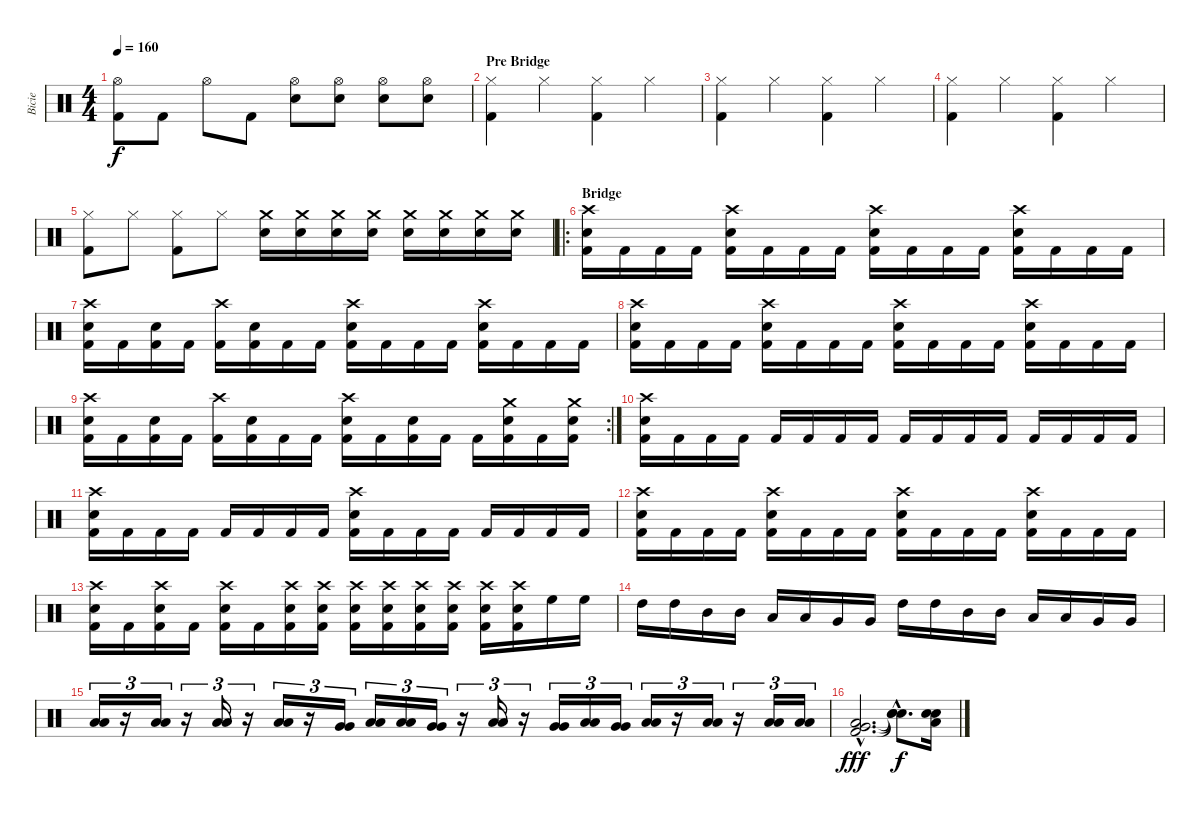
\track ("Bicie" "Bicie") {instrument percussion}
\staff {score}
\articulation defaults
\ts (4 4)
\tempo 160
\clef neutral
\ks c
("Hi-Hat (open)" "Kick (hit) 2").8{dy f} "Kick (hit) 2".8 "Hi-Hat (open)".8 "Kick (hit) 2".8 ("Hi-Hat (open)" "Electric Snare (hit)").8 ("Hi-Hat (open)" "Electric Snare (hit)").8 ("Hi-Hat (open)" "Electric Snare (hit)").8 ("Hi-Hat (open)" "Electric Snare (hit)").8 |
\section ("" "Pre Bridge")
("Kick (hit) 2" "Hi-Hat (closed)").4 "Hi-Hat (closed)".4 ("Kick (hit) 2" "Hi-Hat (closed)").4 "Hi-Hat (closed)".4 |
("Kick (hit) 2" "Hi-Hat (closed)").4 "Hi-Hat (closed)".4 ("Kick (hit) 2" "Hi-Hat (closed)").4 "Hi-Hat (closed)".4 |
("Kick (hit) 2" "Hi-Hat (closed)").4 "Hi-Hat (closed)".4 ("Kick (hit) 2" "Hi-Hat (closed)").4 "Hi-Hat (closed)".4 |
("Kick (hit) 2" "Hi-Hat (closed)").8 "Hi-Hat (closed)".8 ("Kick (hit) 2" "Hi-Hat (closed)").8 "Hi-Hat (closed)".8 ("Electric Snare (hit)" "Crash medium (hit)").16 ("Electric Snare (hit)" "Crash medium (hit)").16 ("Electric Snare (hit)" "Crash medium (hit)").16 ("Electric Snare (hit)" "Crash medium (hit)").16 ("Electric Snare (hit)" "Crash medium (hit)").16 ("Electric Snare (hit)" "Crash medium (hit)").16 ("Electric Snare (hit)" "Crash medium (hit)").16 ("Electric Snare (hit)" "Crash medium (hit)").16 |
\ro
\section ("" "Bridge")
("Crash high (hit)" "Electric Snare (hit)" "Kick (hit) 2").16 "Kick (hit) 2".16 "Kick (hit) 2".16 "Kick (hit) 2".16 ("Crash high (hit)" "Electric Snare (hit)" "Kick (hit) 2").16 "Kick (hit) 2".16 "Kick (hit) 2".16 "Kick (hit) 2".16 ("Crash high (hit)" "Electric Snare (hit)" "Kick (hit) 2").16 "Kick (hit) 2".16 "Kick (hit) 2".16 "Kick (hit) 2".16 ("Crash high (hit)" "Electric Snare (hit)" "Kick (hit) 2").16 "Kick (hit) 2".16 "Kick (hit) 2".16 "Kick (hit) 2".16 |
("Crash high (hit)" "Electric Snare (hit)" "Kick (hit) 2").16 "Kick (hit) 2".16 ("Electric Snare (hit)" "Kick (hit) 2").16 "Kick (hit) 2".16 ("Crash high (hit)" "Kick (hit) 2").16 ("Electric Snare (hit)" "Kick (hit) 2").16 "Kick (hit) 2".16 "Kick (hit) 2".16 ("Crash high (hit)" "Electric Snare (hit)" "Kick (hit) 2").16 "Kick (hit) 2".16 "Kick (hit) 2".16 "Kick (hit) 2".16 ("Crash high (hit)" "Electric Snare (hit)" "Kick (hit) 2").16 "Kick (hit) 2".16 "Kick (hit) 2".16 "Kick (hit) 2".16 |
("Crash high (hit)" "Electric Snare (hit)" "Kick (hit) 2").16 "Kick (hit) 2".16 "Kick (hit) 2".16 "Kick (hit) 2".16 ("Crash high (hit)" "Electric Snare (hit)" "Kick (hit) 2").16 "Kick (hit) 2".16 "Kick (hit) 2".16 "Kick (hit) 2".16 ("Crash high (hit)" "Electric Snare (hit)" "Kick (hit) 2").16 "Kick (hit) 2".16 "Kick (hit) 2".16 "Kick (hit) 2".16 ("Crash high (hit)" "Electric Snare (hit)" "Kick (hit) 2").16 "Kick (hit) 2".16 "Kick (hit) 2".16 "Kick (hit) 2".16 |
\rc 2
("Crash high (hit)" "Electric Snare (hit)" "Kick (hit) 2").16 "Kick (hit) 2".16 ("Electric Snare (hit)" "Kick (hit) 2").16 "Kick (hit) 2".16 ("Crash high (hit)" "Kick (hit) 2").16 ("Electric Snare (hit)" "Kick (hit) 2").16 "Kick (hit) 2".16 "Kick (hit) 2".16 ("Crash high (hit)" "Electric Snare (hit)" "Kick (hit) 2").16 "Kick (hit) 2".16 ("Electric Snare (hit)" "Kick (hit) 2").16 "Kick (hit) 2".16 "Kick (hit) 2".16 ("Crash medium (hit)" "Electric Snare (hit)" "Kick (hit) 2").16 "Kick (hit) 2".16 ("Crash medium (hit)" "Electric Snare (hit)" "Kick (hit) 2").16 |
("Crash high (hit)" "Electric Snare (hit)" "Kick (hit) 2").16{volume 16} "Kick (hit) 2".16 "Kick (hit) 2".16 "Kick (hit) 2".16 "Kick (hit) 2".16 "Kick (hit) 2".16 "Kick (hit) 2".16 "Kick (hit) 2".16 "Kick (hit) 2".16 "Kick (hit) 2".16 "Kick (hit) 2".16 "Kick (hit) 2".16 "Kick (hit) 2".16 "Kick (hit) 2".16 "Kick (hit) 2".16 "Kick (hit) 2".16 |
("Crash high (hit)" "Electric Snare (hit)" "Kick (hit) 2").16 "Kick (hit) 2".16 "Kick (hit) 2".16 "Kick (hit) 2".16 "Kick (hit) 2".16 "Kick (hit) 2".16 "Kick (hit) 2".16 "Kick (hit) 2".16 ("Crash high (hit)" "Electric Snare (hit)" "Kick (hit) 2").16 "Kick (hit) 2".16 "Kick (hit) 2".16 "Kick (hit) 2".16 "Kick (hit) 2".16 "Kick (hit) 2".16 "Kick (hit) 2".16 "Kick (hit) 2".16 |
("Crash high (hit)" "Electric Snare (hit)" "Kick (hit) 2").16 "Kick (hit) 2".16 "Kick (hit) 2".16 "Kick (hit) 2".16 ("Crash high (hit)" "Electric Snare (hit)" "Kick (hit) 2").16 "Kick (hit) 2".16 "Kick (hit) 2".16 "Kick (hit) 2".16 ("Crash high (hit)" "Electric Snare (hit)" "Kick (hit) 2").16 "Kick (hit) 2".16 "Kick (hit) 2".16 "Kick (hit) 2".16 ("Crash high (hit)" "Electric Snare (hit)" "Kick (hit) 2").16 "Kick (hit) 2".16 "Kick (hit) 2".16 "Kick (hit) 2".16 |
("Crash high (hit)" "Electric Snare (hit)" "Kick (hit) 2").16 "Kick (hit) 2".16 ("Crash high (hit)" "Electric Snare (hit)" "Kick (hit) 2").16 "Kick (hit) 2".16 ("Crash high (hit)" "Electric Snare (hit)" "Kick (hit) 2").16 "Kick (hit) 2".16 ("Crash high (hit)" "Electric Snare (hit)" "Kick (hit) 2").16 ("Crash high (hit)" "Electric Snare (hit)" "Kick (hit) 2").16 ("Crash high (hit)" "Electric Snare (hit)" "Kick (hit) 2").16 ("Crash high (hit)" "Electric Snare (hit)" "Kick (hit) 2").16 ("Crash high (hit)" "Electric Snare (hit)" "Kick (hit) 2").16 ("Crash high (hit)" "Electric Snare (hit)" "Kick (hit) 2").16 ("Crash high (hit)" "Electric Snare (hit)" "Kick (hit) 2").16 ("Crash high (hit)" "Electric Snare (hit)" "Kick (hit) 2").16 "High Floor Tom (hit)".16 "High Floor Tom (hit)".16 |
"High Tom (hit)".16 "High Tom (hit)".16 "Mid Tom (hit)".16 "Mid Tom (hit)".16 "Low Tom (hit)".16 "Low Tom (hit)".16 "Very Low Tom (hit)".16 "Very Low Tom (hit)".16 "High Tom (hit)".16 "High Tom (hit)".16 "Mid Tom (hit)".16 "Mid Tom (hit)".16 "Low Tom (hit)".16 "Low Tom (hit)".16 "Very Low Tom (hit)".16 "Very Low Tom (hit)".16 |
("Low Floor Tom (hit)" "Low Floor Tom (hit)").16{tu (3 2)} r.16{tu (3 2)} ("Low Floor Tom (hit)" "Low Floor Tom (hit)").16{tu (3 2)} r.16{tu (3 2)} ("Low Floor Tom (hit)" "Low Floor Tom (hit)").16{tu (3 2)} r.16{tu (3 2)} ("Low Floor Tom (hit)" "Low Floor Tom (hit)").16{tu (3 2)} r.16{tu (3 2)} ("Very Low Tom (hit)" "Very Low Tom (hit)").16{tu (3 2)} ("Low Tom (hit)" "Low Tom (hit)").16{tu (3 2)} ("Low Tom (hit)" "Low Tom (hit)").16{tu (3 2)} ("Very Low Tom (hit)" "Very Low Tom (hit)").16{tu (3 2)} r.16{tu (3 2)} ("Low Floor Tom (hit)" "Low Floor Tom (hit)").16{tu (3 2)} r.16{tu (3 2)} ("Very Low Tom (hit)" "Very Low Tom (hit)").16{tu (3 2)} ("Low Tom (hit)" "Low Tom (hit)").16{tu (3 2)} ("Very Low Tom (hit)" "Very Low Tom (hit)").16{tu (3 2)} ("Low Floor Tom (hit)" "Low Floor Tom (hit)").16{tu (3 2)} r.16{tu (3 2)} ("Low Floor Tom (hit)" "Low Floor Tom (hit)").16{tu (3 2)} r.16{tu (3 2)} ("Low Floor Tom (hit)" "Low Floor Tom (hit)").16{tu (3 2)} ("Low Floor Tom (hit)" "Low Floor Tom (hit)").16{tu (3 2)} |
("Very Low Tom (hit)"{hac} "Low Floor Tom (hit)"{hac} "Kick (hit) 2"{hac}).2{d dy fff} ("Snare (hit)"{hac t} "Snare (hit)"{hac t} "Snare (hit)"{hac t}).8{d dy f} ("Low Floor Tom (hit)" "Electric Snare (hit)" "Electric Snare (hit)").16
